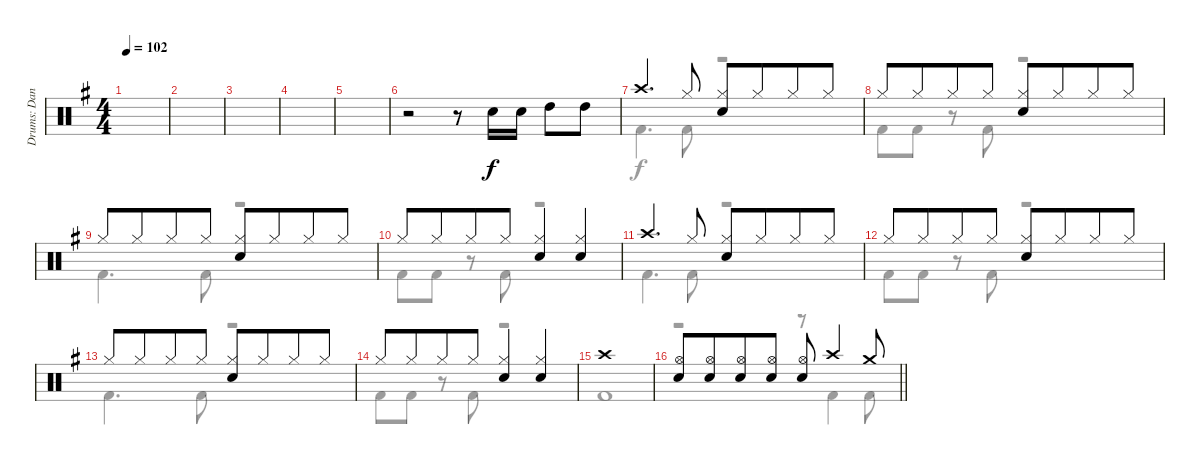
\track ("Drums: Dana" "Drums: Dan") {instrument percussion}
\staff {score}
\articulation defaults
\voice
\ts (4 4)
\tempo 102
\clef neutral
\ks g
|
|
|
|
|
r.2 r.8 "Snare (hit) 2".16 "Snare (hit) 2".16 "High Tom (hit)".8 "High Tom (hit)".8 |
"Crash high (hit)".4{d} "Hi-Hat (closed)".8 ("Hi-Hat (closed)" "Snare (hit) 2").8 "Hi-Hat (closed)".8{beam merge} "Hi-Hat (closed)".8 "Hi-Hat (closed)".8 |
"Hi-Hat (closed)".8 "Hi-Hat (closed)".8{beam merge} "Hi-Hat (closed)".8 "Hi-Hat (closed)".8 ("Hi-Hat (closed)" "Snare (hit) 2").8 "Hi-Hat (closed)".8{beam merge} "Hi-Hat (closed)".8 "Hi-Hat (closed)".8 |
"Hi-Hat (closed)".8 "Hi-Hat (closed)".8{beam merge} "Hi-Hat (closed)".8 "Hi-Hat (closed)".8 ("Hi-Hat (closed)" "Snare (hit) 2").8 "Hi-Hat (closed)".8{beam merge} "Hi-Hat (closed)".8 "Hi-Hat (closed)".8 |
"Hi-Hat (closed)".8 "Hi-Hat (closed)".8{beam merge} "Hi-Hat (closed)".8 "Hi-Hat (closed)".8 ("Hi-Hat (closed)" "Snare (hit) 2").4 ("Hi-Hat (closed)" "Snare (hit) 2").4 |
"Crash high (hit)".4{d} "Hi-Hat (closed)".8 ("Hi-Hat (closed)" "Snare (hit) 2").8 "Hi-Hat (closed)".8{beam merge} "Hi-Hat (closed)".8 "Hi-Hat (closed)".8 |
"Hi-Hat (closed)".8 "Hi-Hat (closed)".8{beam merge} "Hi-Hat (closed)".8 "Hi-Hat (closed)".8 ("Hi-Hat (closed)" "Snare (hit) 2").8 "Hi-Hat (closed)".8{beam merge} "Hi-Hat (closed)".8 "Hi-Hat (closed)".8 |
"Hi-Hat (closed)".8 "Hi-Hat (closed)".8{beam merge} "Hi-Hat (closed)".8 "Hi-Hat (closed)".8 ("Hi-Hat (closed)" "Snare (hit) 2").8 "Hi-Hat (closed)".8{beam merge} "Hi-Hat (closed)".8 "Hi-Hat (closed)".8 |
"Hi-Hat (closed)".8 "Hi-Hat (closed)".8{beam merge} "Hi-Hat (closed)".8 "Hi-Hat (closed)".8 ("Hi-Hat (closed)" "Snare (hit) 2").4 ("Hi-Hat (closed)" "Snare (hit) 2").4 |
"Crash high (hit)".1 |
\barLineRight lightlight
("Hi-Hat (open)" "Snare (hit) 2").8 ("Hi-Hat (open)" "Snare (hit) 2").8{beam merge} ("Hi-Hat (open)" "Snare (hit) 2").8 ("Hi-Hat (open)" "Snare (hit) 2").8 ("Hi-Hat (open)" "Snare (hit) 2").8 "Crash high (hit)".4 "Crash medium (hit)".8
\voice
\clef neutral
\ottava regular
\simile none
\ks g
|
|
|
|
|
|
"Kick (hit) 2".4{d} "Kick (hit) 2".8 r.2 |
"Kick (hit) 2".8 "Kick (hit) 2".8 r.8 "Kick (hit) 2".8 r.2 |
"Kick (hit) 2".4{d} "Kick (hit) 2".8 r.2 |
"Kick (hit) 2".8 "Kick (hit) 2".8 r.8 "Kick (hit) 2".8 r.2 |
"Kick (hit) 2".4{d} "Kick (hit) 2".8 r.2 |
"Kick (hit) 2".8 "Kick (hit) 2".8 r.8 "Kick (hit) 2".8 r.2 |
"Kick (hit) 2".4{d} "Kick (hit) 2".8 r.2 |
"Kick (hit) 2".8 "Kick (hit) 2".8 r.8 "Kick (hit) 2".8 r.2 |
"Kick (hit) 2".1 |
\barLineRight lightlight
r.2 r.8 "Kick (hit) 2".4 "Kick (hit) 2".8
